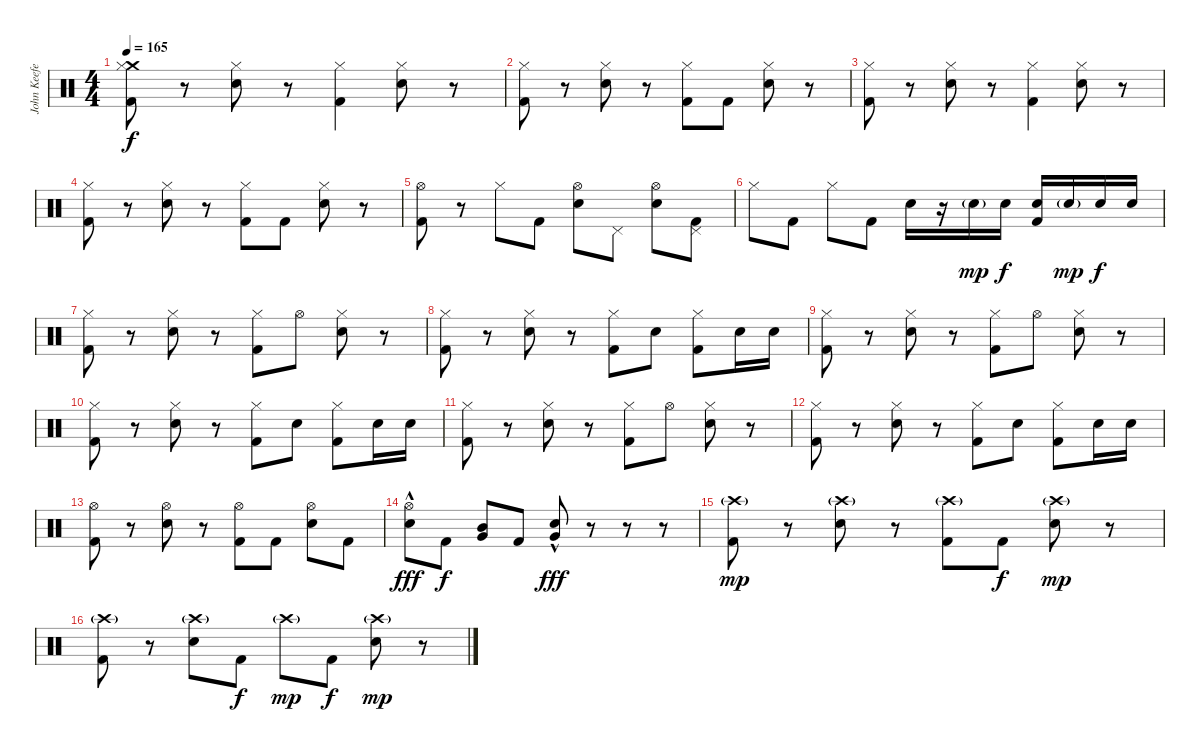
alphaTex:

\track ("John Keefe (Drums)" "John Keefe") {instrument percussion}
\staff {score}
\articulation defaults
\ts (4 4)
\tempo 165
\clef neutral
\ks c
("Crash medium (hit)" "Hi-Hat (closed)" "Kick (hit) 2").8{dy f} r.8 ("Hi-Hat (closed)" "Electric Snare (hit)").8 r.8 ("Hi-Hat (closed)" "Kick (hit) 2").4 ("Hi-Hat (closed)" "Electric Snare (hit)").8 r.8 |
("Hi-Hat (closed)" "Kick (hit) 2").8 r.8 ("Hi-Hat (closed)" "Electric Snare (hit)").8 r.8 ("Hi-Hat (closed)" "Kick (hit) 2").8 "Kick (hit) 2".8 ("Hi-Hat (closed)" "Electric Snare (hit)").8 r.8 |
("Hi-Hat (closed)" "Kick (hit) 2").8 r.8 ("Hi-Hat (closed)" "Electric Snare (hit)").8 r.8 ("Hi-Hat (closed)" "Kick (hit) 2").4 ("Hi-Hat (closed)" "Electric Snare (hit)").8 r.8 |
("Hi-Hat (closed)" "Kick (hit) 2").8 r.8 ("Hi-Hat (closed)" "Electric Snare (hit)").8 r.8 ("Hi-Hat (closed)" "Kick (hit) 2").8 "Kick (hit) 2".8 ("Hi-Hat (closed)" "Electric Snare (hit)").8 r.8 |
("Hi-Hat (open)" "Kick (hit) 2").8 r.8 "Hi-Hat (closed)".8 "Kick (hit) 2".8 ("Hi-Hat (open)" "Electric Snare (hit)").8 "Pedal Hi-Hat (hit)".8 ("Hi-Hat (open)" "Electric Snare (hit)").8 ("Pedal Hi-Hat (hit)" "Kick (hit) 2").8 |
"Hi-Hat (closed)".8 "Kick (hit) 2".8 "Hi-Hat (closed)".8 "Kick (hit) 2".8 "Electric Snare (hit)".16 r.16 "Electric Snare (hit)"{g}.16{dy mp} "Electric Snare (hit)".16{dy f} ("Electric Snare (hit)" "Kick (hit) 2").16 "Electric Snare (hit)"{g}.16{dy mp} "Electric Snare (hit)".16{dy f} "Electric Snare (hit)".16 |
("Hi-Hat (closed)" "Kick (hit) 2").8 r.8 ("Hi-Hat (closed)" "Electric Snare (hit)").8 r.8 ("Hi-Hat (closed)" "Kick (hit) 2").8 "Hi-Hat (open)".8 ("Hi-Hat (closed)" "Electric Snare (hit)").8 r.8 |
("Hi-Hat (closed)" "Kick (hit) 2").8 r.8 ("Hi-Hat (closed)" "Electric Snare (hit)").8 r.8 ("Hi-Hat (closed)" "Kick (hit) 2").8 "Electric Snare (hit)".8 ("Hi-Hat (closed)" "Kick (hit) 2").8 "Electric Snare (hit)".16 "Electric Snare (hit)".16 |
("Hi-Hat (closed)" "Kick (hit) 2").8 r.8 ("Hi-Hat (closed)" "Electric Snare (hit)").8 r.8 ("Hi-Hat (closed)" "Kick (hit) 2").8 "Hi-Hat (open)".8 ("Hi-Hat (closed)" "Electric Snare (hit)").8 r.8 |
("Hi-Hat (closed)" "Kick (hit) 2").8 r.8 ("Hi-Hat (closed)" "Electric Snare (hit)").8 r.8 ("Hi-Hat (closed)" "Kick (hit) 2").8 "Electric Snare (hit)".8 ("Hi-Hat (closed)" "Kick (hit) 2").8 "Electric Snare (hit)".16 "Electric Snare (hit)".16 |
("Hi-Hat (closed)" "Kick (hit) 2").8 r.8 ("Hi-Hat (closed)" "Electric Snare (hit)").8 r.8 ("Hi-Hat (closed)" "Kick (hit) 2").8 "Hi-Hat (open)".8 ("Hi-Hat (closed)" "Electric Snare (hit)").8 r.8 |
("Hi-Hat (closed)" "Kick (hit) 2").8 r.8 ("Hi-Hat (closed)" "Electric Snare (hit)").8 r.8 ("Hi-Hat (closed)" "Kick (hit) 2").8 "Electric Snare (hit)".8 ("Hi-Hat (closed)" "Kick (hit) 2").8 "Electric Snare (hit)".16 "Electric Snare (hit)".16 |
("Hi-Hat (open)" "Kick (hit) 2").8 r.8 ("Hi-Hat (open)" "Electric Snare (hit)").8 r.8 ("Hi-Hat (open)" "Kick (hit) 2").8 "Kick (hit) 2".8 ("Hi-Hat (open)" "Electric Snare (hit)").8 "Kick (hit) 2".8 |
("Hi-Hat (open)" "Electric Snare (hit)"{hac}).8{dy fff} "Kick (hit) 2".8{dy f} ("Mid Tom (hit)" "Very Low Tom (hit)").8 "Kick (hit) 2".8 ("Very Low Tom (hit)"{hac} "Electric Snare (hit)"{hac}).8{dy fff} r.8 r.8 r.8 |
("Crash high (hit)"{g} "Kick (hit) 2").8{dy mp} r.8 ("Crash high (hit)"{g} "Electric Snare (hit)").8 r.8 ("Crash high (hit)"{g} "Kick (hit) 2").8 "Kick (hit) 2".8{dy f} ("Crash high (hit)"{g} "Electric Snare (hit)").8{dy mp} r.8 |
("Crash high (hit)"{g} "Kick (hit) 2").8 r.8 ("Crash high (hit)"{g} "Electric Snare (hit)").8 "Kick (hit) 2".8{dy f} "Crash high (hit)"{g}.8{dy mp} "Kick (hit) 2".8{dy f} ("Crash high (hit)"{g} "Electric Snare (hit)").8{dy mp} r.8
